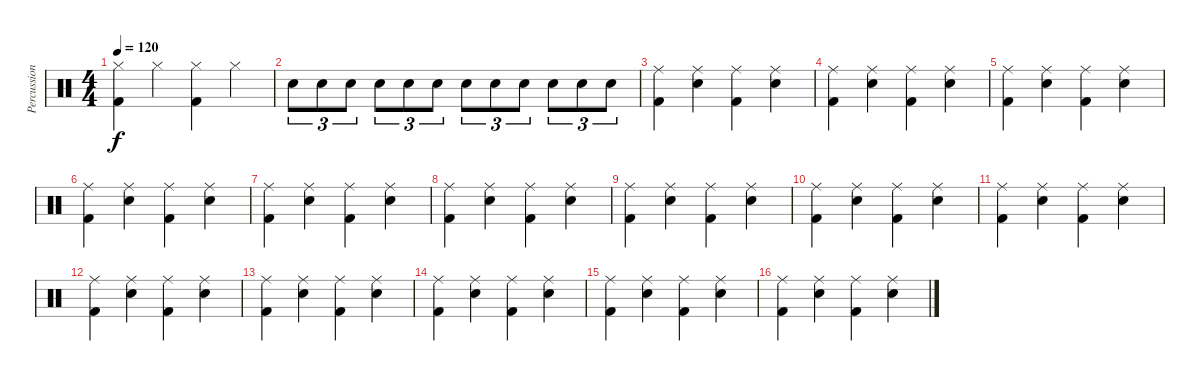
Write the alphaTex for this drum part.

\track ("Percussions" "Percussion") {instrument percussion}
\staff {score}
\articulation defaults
\ts (4 4)
\tempo 120
\clef neutral
\ks c
("Hi-Hat (closed)" "Kick (hit) 2").4{dy f} "Hi-Hat (closed)".4 ("Hi-Hat (closed)" "Kick (hit) 2").4 "Hi-Hat (closed)".4 |
"Electric Snare (hit)".8{tu (3 2)} "Electric Snare (hit)".8{tu (3 2)} "Electric Snare (hit)".8{tu (3 2)} "Electric Snare (hit)".8{tu (3 2)} "Electric Snare (hit)".8{tu (3 2)} "Electric Snare (hit)".8{tu (3 2)} "Electric Snare (hit)".8{tu (3 2)} "Electric Snare (hit)".8{tu (3 2)} "Electric Snare (hit)".8{tu (3 2)} "Electric Snare (hit)".8{tu (3 2)} "Electric Snare (hit)".8{tu (3 2)} "Electric Snare (hit)".8{tu (3 2)} |
("Ride (middle)" "Kick (hit) 2").4 ("Ride (middle)" "Electric Snare (hit)").4 ("Ride (middle)" "Kick (hit) 2").4 ("Ride (middle)" "Electric Snare (hit)").4 |
("Ride (middle)" "Kick (hit) 2").4 ("Ride (middle)" "Electric Snare (hit)").4 ("Ride (middle)" "Kick (hit) 2").4 ("Ride (middle)" "Electric Snare (hit)").4 |
("Ride (middle)" "Kick (hit) 2").4 ("Ride (middle)" "Electric Snare (hit)").4 ("Ride (middle)" "Kick (hit) 2").4 ("Ride (middle)" "Electric Snare (hit)").4 |
("Ride (middle)" "Kick (hit) 2").4 ("Ride (middle)" "Electric Snare (hit)").4 ("Ride (middle)" "Kick (hit) 2").4 ("Ride (middle)" "Electric Snare (hit)").4 |
("Ride (middle)" "Kick (hit) 2").4 ("Ride (middle)" "Electric Snare (hit)").4 ("Ride (middle)" "Kick (hit) 2").4 ("Ride (middle)" "Electric Snare (hit)").4 |
("Ride (middle)" "Kick (hit) 2").4 ("Ride (middle)" "Electric Snare (hit)").4 ("Ride (middle)" "Kick (hit) 2").4 ("Ride (middle)" "Electric Snare (hit)").4 |
("Ride (middle)" "Kick (hit) 2").4 ("Ride (middle)" "Electric Snare (hit)").4 ("Ride (middle)" "Kick (hit) 2").4 ("Ride (middle)" "Electric Snare (hit)").4 |
("Ride (middle)" "Kick (hit) 2").4 ("Ride (middle)" "Electric Snare (hit)").4 ("Ride (middle)" "Kick (hit) 2").4 ("Ride (middle)" "Electric Snare (hit)").4 |
("Ride (middle)" "Kick (hit) 2").4 ("Ride (middle)" "Electric Snare (hit)").4 ("Ride (middle)" "Kick (hit) 2").4 ("Ride (middle)" "Electric Snare (hit)").4 |
("Ride (middle)" "Kick (hit) 2").4 ("Ride (middle)" "Electric Snare (hit)").4 ("Ride (middle)" "Kick (hit) 2").4 ("Ride (middle)" "Electric Snare (hit)").4 |
("Ride (middle)" "Kick (hit) 2").4 ("Ride (middle)" "Electric Snare (hit)").4 ("Ride (middle)" "Kick (hit) 2").4 ("Ride (middle)" "Electric Snare (hit)").4 |
("Ride (middle)" "Kick (hit) 2").4 ("Ride (middle)" "Electric Snare (hit)").4 ("Ride (middle)" "Kick (hit) 2").4 ("Ride (middle)" "Electric Snare (hit)").4 |
("Ride (middle)" "Kick (hit) 2").4 ("Ride (middle)" "Electric Snare (hit)").4 ("Ride (middle)" "Kick (hit) 2").4 ("Ride (middle)" "Electric Snare (hit)").4 |
("Ride (middle)" "Kick (hit) 2").4 ("Ride (middle)" "Electric Snare (hit)").4 ("Ride (middle)" "Kick (hit) 2").4 ("Ride (middle)" "Electric Snare (hit)").4
